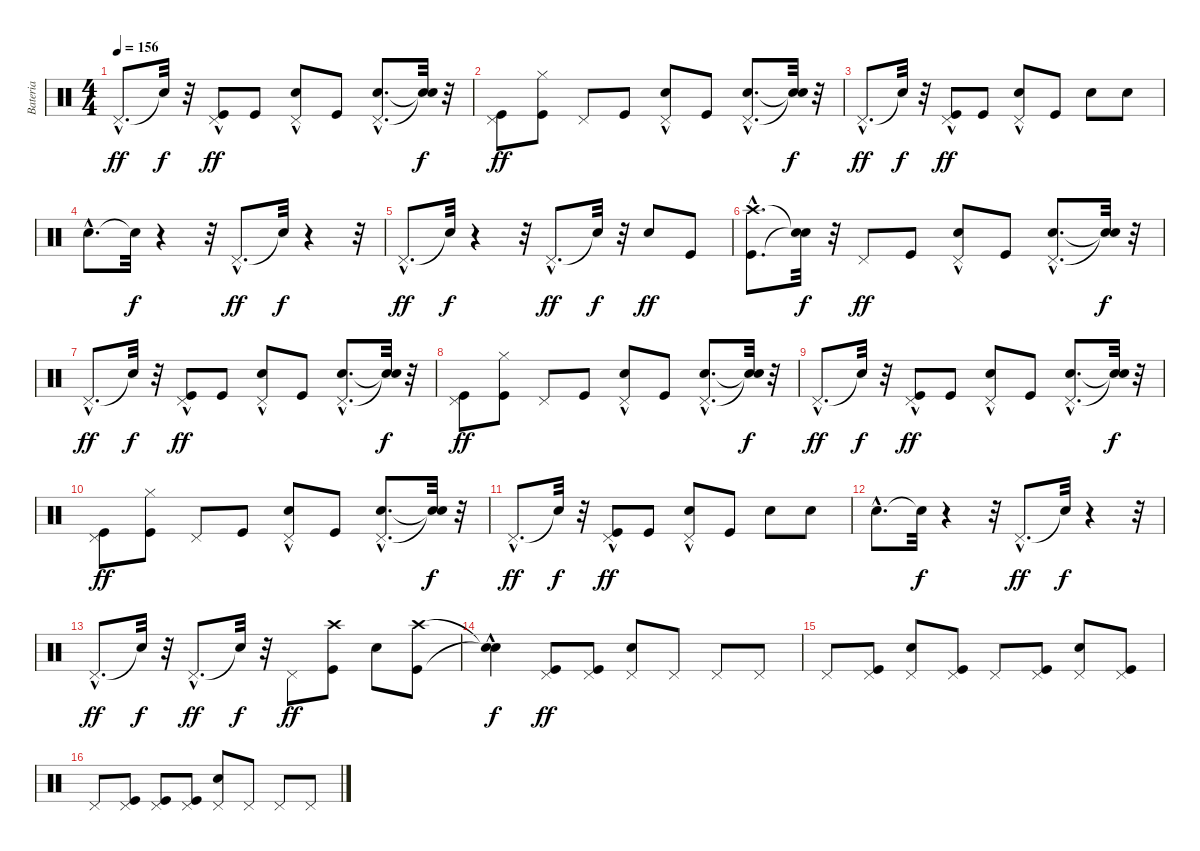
\track ("Bateria" "Bateria") {instrument percussion}
\staff {score}
\articulation defaults
\ts (4 4)
\tempo 156
\clef neutral
\ks c "Pedal Hi-Hat (hit)"{hac}.8{d dy ff} "Snare (hit)"{t}.32{dy f}
r.32 ("Kick (hit)" "Pedal Hi-Hat (hit)"{hac}).8{dy ff} "Kick (hit)".8 ("Snare (hit) 2" "Pedal Hi-Hat (hit)"{hac}).8 "Kick (hit)".8 ("Snare (hit) 2"{hac} "Pedal Hi-Hat (hit)"{hac}).8{d} ("Snare (hit)"{t} "Snare (hit)"{t}).32{dy f} r.32 |
("Kick (hit)" "Pedal Hi-Hat (hit)").8{dy ff} ("Kick (hit)" "Hi-Hat (closed)").8 "Pedal Hi-Hat (hit)".8 "Kick (hit)".8 ("Snare (hit) 2" "Pedal Hi-Hat (hit)"{hac}).8 "Kick (hit)".8 ("Snare (hit) 2"{hac} "Pedal Hi-Hat (hit)"{hac}).8{d} ("Snare (hit)"{t} "Snare (hit)"{t}).32{dy f} r.32 |
"Pedal Hi-Hat (hit)"{hac}.8{d dy ff} "Snare (hit)"{t}.32{dy f} r.32 ("Kick (hit)" "Pedal Hi-Hat (hit)"{hac}).8{dy ff} "Kick (hit)".8 ("Snare (hit) 2" "Pedal Hi-Hat (hit)"{hac}).8 "Kick (hit)".8 "Snare (hit) 2".8 "Snare (hit) 2".8 |
"Snare (hit) 2"{hac}.8{d} "Snare (hit)"{t}.32{dy f} r.4 r.32 "Pedal Hi-Hat (hit)"{hac}.8{d dy ff} "Snare (hit)"{t}.32{dy f} r.4 r.32 |
"Pedal Hi-Hat (hit)"{hac}.8{d dy ff} "Snare (hit)"{t}.32{dy f} r.4 r.32 "Pedal Hi-Hat (hit)"{hac}.8{d dy ff} "Snare (hit)"{t}.32{dy f} r.32 "Snare (hit) 2".8{dy ff} "Kick (hit)".8 |
("Kick (hit)"{hac} "Crash high (hit)"{hac}).8{d} ("Snare (hit)"{t} "Snare (hit)"{t}).32{dy f} r.32 "Pedal Hi-Hat (hit)".8{dy ff} "Kick (hit)".8 ("Snare (hit) 2" "Pedal Hi-Hat (hit)"{hac}).8 "Kick (hit)".8 ("Snare (hit) 2"{hac} "Pedal Hi-Hat (hit)"{hac}).8{d} ("Snare (hit)"{t} "Snare (hit)"{t}).32{dy f} r.32 |
"Pedal Hi-Hat (hit)"{hac}.8{d dy ff} "Snare (hit)"{t}.32{dy f} r.32 ("Kick (hit)" "Pedal Hi-Hat (hit)"{hac}).8{dy ff} "Kick (hit)".8 ("Snare (hit) 2" "Pedal Hi-Hat (hit)"{hac}).8 "Kick (hit)".8 ("Snare (hit) 2"{hac} "Pedal Hi-Hat (hit)"{hac}).8{d} ("Snare (hit)"{t} "Snare (hit)"{t}).32{dy f} r.32 |
("Kick (hit)" "Pedal Hi-Hat (hit)").8{dy ff} ("Kick (hit)" "Hi-Hat (closed)").8 "Pedal Hi-Hat (hit)".8 "Kick (hit)".8 ("Snare (hit) 2" "Pedal Hi-Hat (hit)"{hac}).8 "Kick (hit)".8 ("Snare (hit) 2"{hac} "Pedal Hi-Hat (hit)"{hac}).8{d} ("Snare (hit)"{t} "Snare (hit)"{t}).32{dy f} r.32 |
"Pedal Hi-Hat (hit)"{hac}.8{d dy ff} "Snare (hit)"{t}.32{dy f} r.32 ("Kick (hit)" "Pedal Hi-Hat (hit)"{hac}).8{dy ff} "Kick (hit)".8 ("Snare (hit) 2" "Pedal Hi-Hat (hit)"{hac}).8 "Kick (hit)".8 ("Snare (hit) 2"{hac} "Pedal Hi-Hat (hit)"{hac}).8{d} ("Snare (hit)"{t} "Snare (hit)"{t}).32{dy f} r.32 |
("Kick (hit)" "Pedal Hi-Hat (hit)").8{dy ff} ("Kick (hit)" "Hi-Hat (closed)").8 "Pedal Hi-Hat (hit)".8 "Kick (hit)".8 ("Snare (hit) 2" "Pedal Hi-Hat (hit)"{hac}).8 "Kick (hit)".8 ("Snare (hit) 2"{hac} "Pedal Hi-Hat (hit)"{hac}).8{d} ("Snare (hit)"{t} "Snare (hit)"{t}).32{dy f} r.32 |
"Pedal Hi-Hat (hit)"{hac}.8{d dy ff} "Snare (hit)"{t}.32{dy f} r.32 ("Kick (hit)" "Pedal Hi-Hat (hit)"{hac}).8{dy ff} "Kick (hit)".8 ("Snare (hit) 2" "Pedal Hi-Hat (hit)"{hac}).8 "Kick (hit)".8 "Snare (hit) 2".8 "Snare (hit) 2".8 |
"Snare (hit) 2"{hac}.8{d} "Snare (hit)"{t}.32{dy f} r.4 r.32 "Pedal Hi-Hat (hit)"{hac}.8{d dy ff} "Snare (hit)"{t}.32{dy f} r.4 r.32 |
"Pedal Hi-Hat (hit)"{hac}.8{d dy ff} "Snare (hit)"{t}.32{dy f} r.32 "Pedal Hi-Hat (hit)"{hac}.8{d dy ff} "Snare (hit)"{t}.32{dy f} r.32 "Pedal Hi-Hat (hit)".8{dy ff} ("Kick (hit)" "Crash high (hit)").8 "Snare (hit) 2".8 ("Kick (hit)" "Crash high (hit)").8 |
("Snare (hit)"{hac t} "Snare (hit)"{t}).4{dy f} ("Kick (hit)" "Pedal Hi-Hat (hit)").8{dy ff} ("Kick (hit)" "Pedal Hi-Hat (hit)").8 ("Snare (hit) 2" "Pedal Hi-Hat (hit)").8 "Pedal Hi-Hat (hit)".8 "Pedal Hi-Hat (hit)".8 "Pedal Hi-Hat (hit)".8 |
"Pedal Hi-Hat (hit)".8 ("Kick (hit)" "Pedal Hi-Hat (hit)").8 ("Snare (hit) 2" "Pedal Hi-Hat (hit)").8 ("Kick (hit)" "Pedal Hi-Hat (hit)").8 "Pedal Hi-Hat (hit)".8 ("Kick (hit)" "Pedal Hi-Hat (hit)").8 ("Snare (hit) 2" "Pedal Hi-Hat (hit)").8 ("Kick (hit)" "Pedal Hi-Hat (hit)").8 |
"Pedal Hi-Hat (hit)".8 ("Kick (hit)" "Pedal Hi-Hat (hit)").8 ("Kick (hit)" "Pedal Hi-Hat (hit)").8 ("Kick (hit)" "Pedal Hi-Hat (hit)").8 ("Snare (hit) 2" "Pedal Hi-Hat (hit)").8 "Pedal Hi-Hat (hit)".8 "Pedal Hi-Hat (hit)".8 "Pedal Hi-Hat (hit)".8
